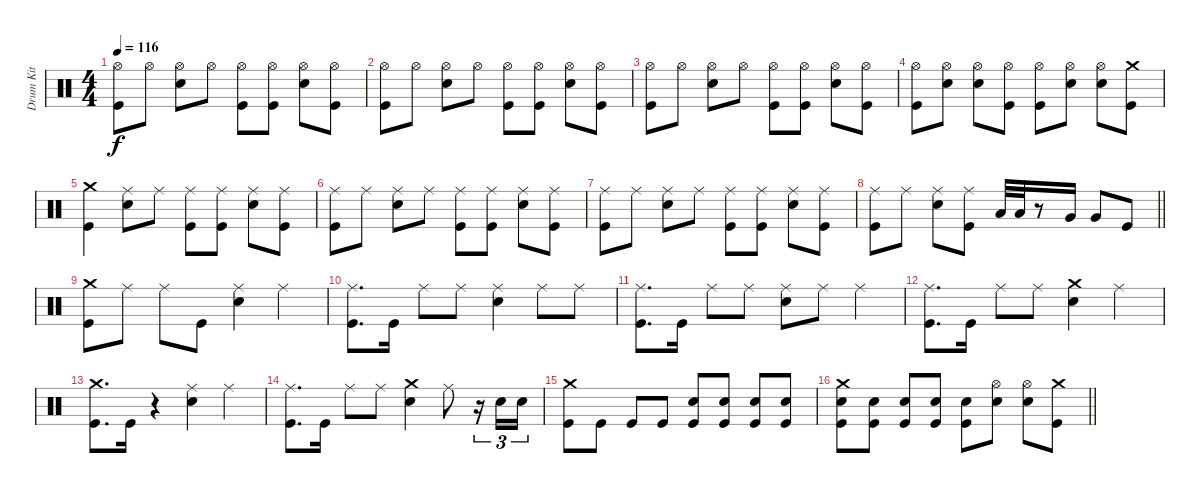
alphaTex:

\track ("Drum Kit" "Drum Kit") {instrument percussion}
\staff {score}
\articulation defaults
\ts (4 4)
\tempo 116
\clef neutral
\ks c
("Hi-Hat (open)" "Kick (hit)").8{dy f} "Hi-Hat (open)".8 ("Hi-Hat (open)" "Snare (hit) 2").8 "Hi-Hat (open)".8 ("Hi-Hat (open)" "Kick (hit)").8 ("Hi-Hat (open)" "Kick (hit)").8 ("Hi-Hat (open)" "Snare (hit) 2").8 ("Hi-Hat (open)" "Kick (hit)").8 |
("Hi-Hat (open)" "Kick (hit)").8 "Hi-Hat (open)".8 ("Hi-Hat (open)" "Snare (hit) 2").8 "Hi-Hat (open)".8 ("Hi-Hat (open)" "Kick (hit)").8 ("Hi-Hat (open)" "Kick (hit)").8 ("Hi-Hat (open)" "Snare (hit) 2").8 ("Hi-Hat (open)" "Kick (hit)").8 |
("Hi-Hat (open)" "Kick (hit)").8 "Hi-Hat (open)".8 ("Hi-Hat (open)" "Snare (hit) 2").8 "Hi-Hat (open)".8 ("Hi-Hat (open)" "Kick (hit)").8 ("Hi-Hat (open)" "Kick (hit)").8 ("Hi-Hat (open)" "Snare (hit) 2").8 ("Hi-Hat (open)" "Kick (hit)").8 |
("Hi-Hat (open)" "Kick (hit)").8 ("Hi-Hat (open)" "Snare (hit) 2").8 ("Hi-Hat (open)" "Snare (hit) 2").8 ("Hi-Hat (open)" "Kick (hit)").8 ("Hi-Hat (open)" "Kick (hit)").8 ("Hi-Hat (open)" "Snare (hit) 2").8 ("Hi-Hat (open)" "Snare (hit) 2").8 ("Crash medium (hit)" "Kick (hit)").8 |
("Crash medium (hit)" "Kick (hit)").4 ("Ride (middle)" "Snare (hit) 2").8 "Ride (middle)".8 ("Ride (middle)" "Kick (hit)").8 ("Ride (middle)" "Kick (hit)").8 ("Ride (middle)" "Snare (hit) 2").8 ("Ride (middle)" "Kick (hit)").8 |
("Ride (middle)" "Kick (hit)").8 "Ride (middle)".8 ("Ride (middle)" "Snare (hit) 2").8 "Ride (middle)".8 ("Ride (middle)" "Kick (hit)").8 ("Ride (middle)" "Kick (hit)").8 ("Ride (middle)" "Snare (hit) 2").8 ("Ride (middle)" "Kick (hit)").8 |
("Ride (middle)" "Kick (hit)").8 "Ride (middle)".8 ("Ride (middle)" "Snare (hit) 2").8 "Ride (middle)".8 ("Ride (middle)" "Kick (hit)").8 ("Ride (middle)" "Kick (hit)").8 ("Ride (middle)" "Snare (hit) 2").8 ("Ride (middle)" "Kick (hit)").8 |
\barLineRight lightlight
("Ride (middle)" "Kick (hit)").8 "Ride (middle)".8 ("Ride (middle)" "Snare (hit) 2").8 ("Ride (middle)" "Kick (hit)").8 "Low Tom (hit)".32 "Low Tom (hit)".32 r.8 "Very Low Tom (hit)".16 "Very Low Tom (hit)".8 "Kick (hit)".8 |
("Crash medium (hit)" "Kick (hit)").8 "Ride (middle)".8 "Ride (middle)".8 "Kick (hit)".8 ("Ride (middle)" "Snare (hit) 2").4 "Ride (middle)".4 |
("Ride (middle)" "Kick (hit)").8{d} "Kick (hit)".16 "Ride (middle)".8 "Ride (middle)".8 ("Ride (middle)" "Snare (hit) 2").4 "Ride (middle)".8 "Ride (middle)".8 |
("Ride (middle)" "Kick (hit)").8{d} "Kick (hit)".16 "Ride (middle)".8 "Ride (middle)".8 ("Ride (middle)" "Snare (hit) 2").8 "Ride (middle)".8 "Ride (middle)".4 |
("Ride (middle)" "Kick (hit)").8{d} "Kick (hit)".16 "Ride (middle)".8 "Ride (middle)".8 ("Crash medium (hit)" "Snare (hit) 2").4 "Ride (middle)".4 |
("Crash medium (hit)" "Kick (hit)").8{d} "Kick (hit)".16 r.4 ("Ride (middle)" "Snare (hit) 2").4 "Ride (middle)".4 |
("Ride (middle)" "Kick (hit)").8{d} "Kick (hit)".16 "Ride (middle)".8 "Ride (middle)".8 ("Crash medium (hit)" "Snare (hit) 2").4 "Ride (middle)".8 r.16{tu (3 2)} "Snare (hit) 2".16{tu (3 2)} "Snare (hit) 2".16{tu (3 2)} |
("Crash medium (hit)" "Kick (hit)").8 "Kick (hit)".8 "Kick (hit)".8 "Kick (hit)".8 ("Snare (hit) 2" "Kick (hit)").8 ("Snare (hit) 2" "Kick (hit)").8 ("Snare (hit) 2" "Kick (hit)").8 ("Snare (hit) 2" "Kick (hit)").8 |
\barLineRight lightlight
("Crash medium (hit)" "Snare (hit) 2" "Kick (hit)").8 ("Snare (hit) 2" "Kick (hit)").8 ("Snare (hit) 2" "Kick (hit)").8 ("Snare (hit) 2" "Kick (hit)").8 ("Snare (hit) 2" "Kick (hit)").8 ("Hi-Hat (open)" "Snare (hit) 2").8 ("Hi-Hat (open)" "Snare (hit) 2").8 ("Crash medium (hit)" "Kick (hit)").8
